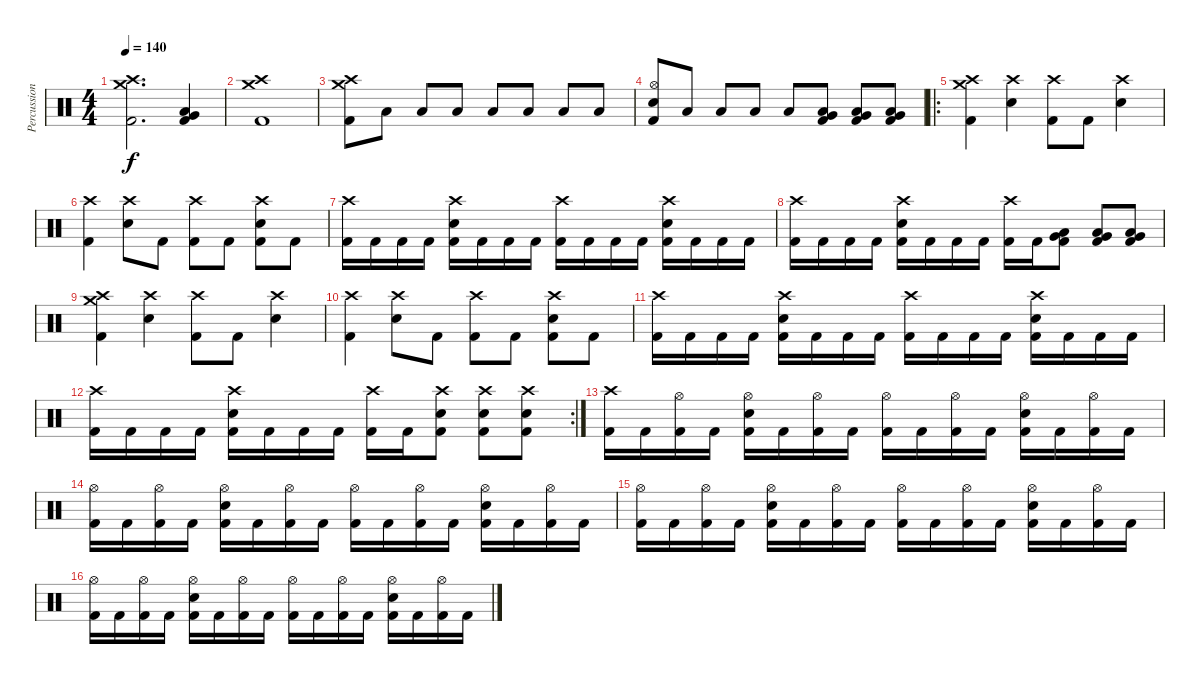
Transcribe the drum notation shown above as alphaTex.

\track ("Percussion" "Percussion") {instrument percussion}
\staff {score}
\articulation defaults
\ts (4 4)
\tempo 140
\clef neutral
\ks c
("Crash medium (hit)" "Crash high (hit)" "Kick (hit) 2").2{d dy f} ("Low Tom (hit)" "Very Low Tom (hit)" "Kick (hit) 2").4 |
("Crash medium (hit)" "Crash high (hit)" "Kick (hit) 2").1 |
("Crash medium (hit)" "Crash high (hit)" "Kick (hit) 2").8 "Low Tom (hit)".8 "Low Tom (hit)".8 "Low Tom (hit)".8 "Low Tom (hit)".8 "Low Tom (hit)".8 "Low Tom (hit)".8 "Low Tom (hit)".8 |
("Hi-Hat (open)" "Electric Snare (hit)" "Kick (hit) 2").8 "Low Tom (hit)".8 "Low Tom (hit)".8 "Low Tom (hit)".8 "Low Tom (hit)".8 ("Low Tom (hit)" "Very Low Tom (hit)" "Kick (hit) 2").8 ("Low Tom (hit)" "Very Low Tom (hit)" "Kick (hit) 2").8 ("Low Tom (hit)" "Very Low Tom (hit)" "Kick (hit) 2").8 |
\ro
("Crash medium (hit)" "Crash high (hit)" "Kick (hit) 2").4 ("Crash high (hit)" "Electric Snare (hit)").4 ("Crash high (hit)" "Kick (hit) 2").8 "Kick (hit) 2".8 ("Crash high (hit)" "Electric Snare (hit)").4 |
("Crash high (hit)" "Kick (hit) 2").4 ("Crash high (hit)" "Electric Snare (hit)").8 "Kick (hit) 2".8 ("Crash high (hit)" "Kick (hit) 2").8 "Kick (hit) 2".8 ("Crash high (hit)" "Electric Snare (hit)" "Kick (hit) 2").8 "Kick (hit) 2".8 |
("Crash high (hit)" "Kick (hit) 2").16 "Kick (hit) 2".16 "Kick (hit) 2".16 "Kick (hit) 2".16 ("Crash high (hit)" "Electric Snare (hit)" "Kick (hit) 2").16 "Kick (hit) 2".16 "Kick (hit) 2".16 "Kick (hit) 2".16 ("Crash high (hit)" "Kick (hit) 2").16 "Kick (hit) 2".16 "Kick (hit) 2".16 "Kick (hit) 2".16 ("Crash high (hit)" "Electric Snare (hit)" "Kick (hit) 2").16 "Kick (hit) 2".16 "Kick (hit) 2".16 "Kick (hit) 2".16 |
("Crash high (hit)" "Kick (hit) 2").16 "Kick (hit) 2".16 "Kick (hit) 2".16 "Kick (hit) 2".16 ("Crash high (hit)" "Electric Snare (hit)" "Kick (hit) 2").16 "Kick (hit) 2".16 "Kick (hit) 2".16 "Kick (hit) 2".16 ("Crash high (hit)" "Kick (hit) 2").16 "Kick (hit) 2".16 ("Low Tom (hit)" "Very Low Tom (hit)" "Kick (hit) 2").8 ("Low Tom (hit)" "Very Low Tom (hit)" "Kick (hit) 2").8 ("Low Tom (hit)" "Very Low Tom (hit)" "Kick (hit) 2").8 |
("Crash medium (hit)" "Crash high (hit)" "Kick (hit) 2").4 ("Crash high (hit)" "Electric Snare (hit)").4 ("Crash high (hit)" "Kick (hit) 2").8 "Kick (hit) 2".8 ("Crash high (hit)" "Electric Snare (hit)").4 |
("Crash high (hit)" "Kick (hit) 2").4 ("Crash high (hit)" "Electric Snare (hit)").8 "Kick (hit) 2".8 ("Crash high (hit)" "Kick (hit) 2").8 "Kick (hit) 2".8 ("Crash high (hit)" "Electric Snare (hit)" "Kick (hit) 2").8 "Kick (hit) 2".8 |
("Crash high (hit)" "Kick (hit) 2").16 "Kick (hit) 2".16 "Kick (hit) 2".16 "Kick (hit) 2".16 ("Crash high (hit)" "Electric Snare (hit)" "Kick (hit) 2").16 "Kick (hit) 2".16 "Kick (hit) 2".16 "Kick (hit) 2".16 ("Crash high (hit)" "Kick (hit) 2").16 "Kick (hit) 2".16 "Kick (hit) 2".16 "Kick (hit) 2".16 ("Crash high (hit)" "Electric Snare (hit)" "Kick (hit) 2").16 "Kick (hit) 2".16 "Kick (hit) 2".16 "Kick (hit) 2".16 |
\rc 2
("Crash high (hit)" "Kick (hit) 2").16 "Kick (hit) 2".16 "Kick (hit) 2".16 "Kick (hit) 2".16 ("Crash high (hit)" "Electric Snare (hit)" "Kick (hit) 2").16 "Kick (hit) 2".16 "Kick (hit) 2".16 "Kick (hit) 2".16 ("Crash high (hit)" "Kick (hit) 2").16 "Kick (hit) 2".16 ("Crash high (hit)" "Electric Snare (hit)" "Kick (hit) 2").8 ("Crash high (hit)" "Electric Snare (hit)" "Kick (hit) 2").8 ("Crash high (hit)" "Electric Snare (hit)" "Kick (hit) 2").8 |
("Crash high (hit)" "Kick (hit) 2").16 "Kick (hit) 2".16 ("Hi-Hat (open)" "Kick (hit) 2").16 "Kick (hit) 2".16 ("Hi-Hat (open)" "Electric Snare (hit)" "Kick (hit) 2").16 "Kick (hit) 2".16 ("Hi-Hat (open)" "Kick (hit) 2").16 "Kick (hit) 2".16 ("Hi-Hat (open)" "Kick (hit) 2").16 "Kick (hit) 2".16 ("Hi-Hat (open)" "Kick (hit) 2").16 "Kick (hit) 2".16 ("Hi-Hat (open)" "Electric Snare (hit)" "Kick (hit) 2").16 "Kick (hit) 2".16 ("Hi-Hat (open)" "Kick (hit) 2").16 "Kick (hit) 2".16 |
("Hi-Hat (open)" "Kick (hit) 2").16 "Kick (hit) 2".16 ("Hi-Hat (open)" "Kick (hit) 2").16 "Kick (hit) 2".16 ("Hi-Hat (open)" "Electric Snare (hit)" "Kick (hit) 2").16 "Kick (hit) 2".16 ("Hi-Hat (open)" "Kick (hit) 2").16 "Kick (hit) 2".16 ("Hi-Hat (open)" "Kick (hit) 2").16 "Kick (hit) 2".16 ("Hi-Hat (open)" "Kick (hit) 2").16 "Kick (hit) 2".16 ("Hi-Hat (open)" "Electric Snare (hit)" "Kick (hit) 2").16 "Kick (hit) 2".16 ("Hi-Hat (open)" "Kick (hit) 2").16 "Kick (hit) 2".16 |
("Hi-Hat (open)" "Kick (hit) 2").16 "Kick (hit) 2".16 ("Hi-Hat (open)" "Kick (hit) 2").16 "Kick (hit) 2".16 ("Hi-Hat (open)" "Electric Snare (hit)" "Kick (hit) 2").16 "Kick (hit) 2".16 ("Hi-Hat (open)" "Kick (hit) 2").16 "Kick (hit) 2".16 ("Hi-Hat (open)" "Kick (hit) 2").16 "Kick (hit) 2".16 ("Hi-Hat (open)" "Kick (hit) 2").16 "Kick (hit) 2".16 ("Hi-Hat (open)" "Electric Snare (hit)" "Kick (hit) 2").16 "Kick (hit) 2".16 ("Hi-Hat (open)" "Kick (hit) 2").16 "Kick (hit) 2".16 |
("Hi-Hat (open)" "Kick (hit) 2").16 "Kick (hit) 2".16 ("Hi-Hat (open)" "Kick (hit) 2").16 "Kick (hit) 2".16 ("Hi-Hat (open)" "Electric Snare (hit)" "Kick (hit) 2").16 "Kick (hit) 2".16 ("Hi-Hat (open)" "Kick (hit) 2").16 "Kick (hit) 2".16 ("Hi-Hat (open)" "Kick (hit) 2").16 "Kick (hit) 2".16 ("Hi-Hat (open)" "Kick (hit) 2").16 "Kick (hit) 2".16 ("Hi-Hat (open)" "Electric Snare (hit)" "Kick (hit) 2").16 "Kick (hit) 2".16 ("Hi-Hat (open)" "Kick (hit) 2").16 "Kick (hit) 2".16
